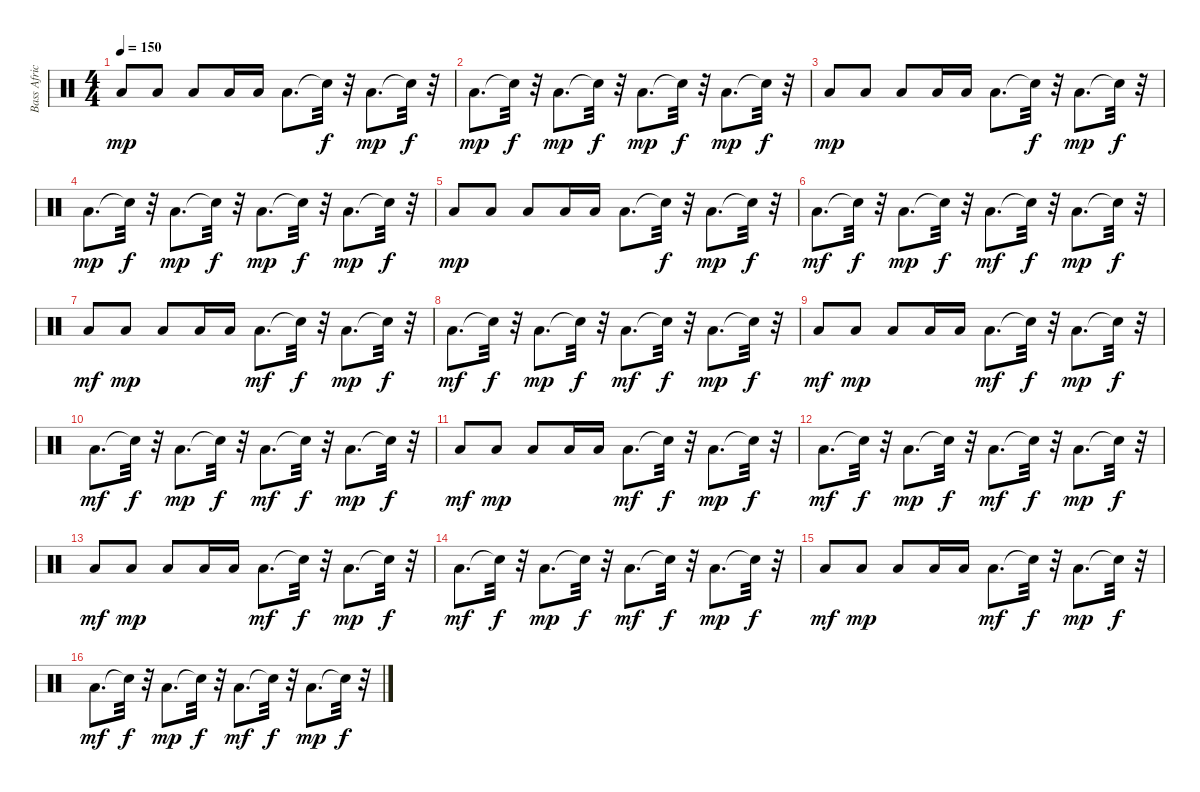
\track ("Bass African Drum" "Bass Afric") {instrument percussion}
\staff {score}
\articulation defaults
\ts (4 4)
\tempo 150
\clef neutral
\ks c "Low Floor Tom (hit)".8{dy mp} "Low Floor Tom (hit)".8 "Low Floor Tom (hit)".8 "Low Floor Tom (hit)".16 "Low Floor Tom (hit)".16 "Low Floor Tom (hit)".8{d} "Snare (hit)"{t}.32{dy f}
r.32 "Low Floor Tom (hit)".8{d dy mp} "Snare (hit)"{t}.32{dy f} r.32 |
"Low Floor Tom (hit)".8{d dy mp} "Snare (hit)"{t}.32{dy f} r.32 "Low Floor Tom (hit)".8{d dy mp} "Snare (hit)"{t}.32{dy f} r.32 "Low Floor Tom (hit)".8{d dy mp} "Snare (hit)"{t}.32{dy f} r.32 "Low Floor Tom (hit)".8{d dy mp} "Snare (hit)"{t}.32{dy f} r.32 |
"Low Floor Tom (hit)".8{dy mp} "Low Floor Tom (hit)".8 "Low Floor Tom (hit)".8 "Low Floor Tom (hit)".16 "Low Floor Tom (hit)".16 "Low Floor Tom (hit)".8{d} "Snare (hit)"{t}.32{dy f} r.32 "Low Floor Tom (hit)".8{d dy mp} "Snare (hit)"{t}.32{dy f} r.32 |
"Low Floor Tom (hit)".8{d dy mp} "Snare (hit)"{t}.32{dy f} r.32 "Low Floor Tom (hit)".8{d dy mp} "Snare (hit)"{t}.32{dy f} r.32 "Low Floor Tom (hit)".8{d dy mp} "Snare (hit)"{t}.32{dy f} r.32 "Low Floor Tom (hit)".8{d dy mp} "Snare (hit)"{t}.32{dy f} r.32 |
"Low Floor Tom (hit)".8{dy mp} "Low Floor Tom (hit)".8 "Low Floor Tom (hit)".8 "Low Floor Tom (hit)".16 "Low Floor Tom (hit)".16 "Low Floor Tom (hit)".8{d} "Snare (hit)"{t}.32{dy f} r.32 "Low Floor Tom (hit)".8{d dy mp} "Snare (hit)"{t}.32{dy f} r.32 |
"Low Floor Tom (hit)".8{d dy mf} "Snare (hit)"{t}.32{dy f} r.32 "Low Floor Tom (hit)".8{d dy mp} "Snare (hit)"{t}.32{dy f} r.32 "Low Floor Tom (hit)".8{d dy mf} "Snare (hit)"{t}.32{dy f} r.32 "Low Floor Tom (hit)".8{d dy mp} "Snare (hit)"{t}.32{dy f} r.32 |
"Low Floor Tom (hit)".8{dy mf} "Low Floor Tom (hit)".8{dy mp} "Low Floor Tom (hit)".8 "Low Floor Tom (hit)".16 "Low Floor Tom (hit)".16 "Low Floor Tom (hit)".8{d dy mf} "Snare (hit)"{t}.32{dy f} r.32 "Low Floor Tom (hit)".8{d dy mp} "Snare (hit)"{t}.32{dy f} r.32 |
"Low Floor Tom (hit)".8{d dy mf} "Snare (hit)"{t}.32{dy f} r.32 "Low Floor Tom (hit)".8{d dy mp} "Snare (hit)"{t}.32{dy f} r.32 "Low Floor Tom (hit)".8{d dy mf} "Snare (hit)"{t}.32{dy f} r.32 "Low Floor Tom (hit)".8{d dy mp} "Snare (hit)"{t}.32{dy f} r.32 |
"Low Floor Tom (hit)".8{dy mf} "Low Floor Tom (hit)".8{dy mp} "Low Floor Tom (hit)".8 "Low Floor Tom (hit)".16 "Low Floor Tom (hit)".16 "Low Floor Tom (hit)".8{d dy mf} "Snare (hit)"{t}.32{dy f} r.32 "Low Floor Tom (hit)".8{d dy mp} "Snare (hit)"{t}.32{dy f} r.32 |
"Low Floor Tom (hit)".8{d dy mf} "Snare (hit)"{t}.32{dy f} r.32 "Low Floor Tom (hit)".8{d dy mp} "Snare (hit)"{t}.32{dy f} r.32 "Low Floor Tom (hit)".8{d dy mf} "Snare (hit)"{t}.32{dy f} r.32 "Low Floor Tom (hit)".8{d dy mp} "Snare (hit)"{t}.32{dy f} r.32 |
"Low Floor Tom (hit)".8{dy mf} "Low Floor Tom (hit)".8{dy mp} "Low Floor Tom (hit)".8 "Low Floor Tom (hit)".16 "Low Floor Tom (hit)".16 "Low Floor Tom (hit)".8{d dy mf} "Snare (hit)"{t}.32{dy f} r.32 "Low Floor Tom (hit)".8{d dy mp} "Snare (hit)"{t}.32{dy f} r.32 |
"Low Floor Tom (hit)".8{d dy mf} "Snare (hit)"{t}.32{dy f} r.32 "Low Floor Tom (hit)".8{d dy mp} "Snare (hit)"{t}.32{dy f} r.32 "Low Floor Tom (hit)".8{d dy mf} "Snare (hit)"{t}.32{dy f} r.32 "Low Floor Tom (hit)".8{d dy mp} "Snare (hit)"{t}.32{dy f} r.32 |
"Low Floor Tom (hit)".8{dy mf} "Low Floor Tom (hit)".8{dy mp} "Low Floor Tom (hit)".8 "Low Floor Tom (hit)".16 "Low Floor Tom (hit)".16 "Low Floor Tom (hit)".8{d dy mf} "Snare (hit)"{t}.32{dy f} r.32 "Low Floor Tom (hit)".8{d dy mp} "Snare (hit)"{t}.32{dy f} r.32 |
"Low Floor Tom (hit)".8{d dy mf} "Snare (hit)"{t}.32{dy f} r.32 "Low Floor Tom (hit)".8{d dy mp} "Snare (hit)"{t}.32{dy f} r.32 "Low Floor Tom (hit)".8{d dy mf} "Snare (hit)"{t}.32{dy f} r.32 "Low Floor Tom (hit)".8{d dy mp} "Snare (hit)"{t}.32{dy f} r.32 |
"Low Floor Tom (hit)".8{dy mf} "Low Floor Tom (hit)".8{dy mp} "Low Floor Tom (hit)".8 "Low Floor Tom (hit)".16 "Low Floor Tom (hit)".16 "Low Floor Tom (hit)".8{d dy mf} "Snare (hit)"{t}.32{dy f} r.32 "Low Floor Tom (hit)".8{d dy mp} "Snare (hit)"{t}.32{dy f} r.32 |
"Low Floor Tom (hit)".8{d dy mf} "Snare (hit)"{t}.32{dy f} r.32 "Low Floor Tom (hit)".8{d dy mp} "Snare (hit)"{t}.32{dy f} r.32 "Low Floor Tom (hit)".8{d dy mf} "Snare (hit)"{t}.32{dy f} r.32 "Low Floor Tom (hit)".8{d dy mp} "Snare (hit)"{t}.32{dy f} r.32
